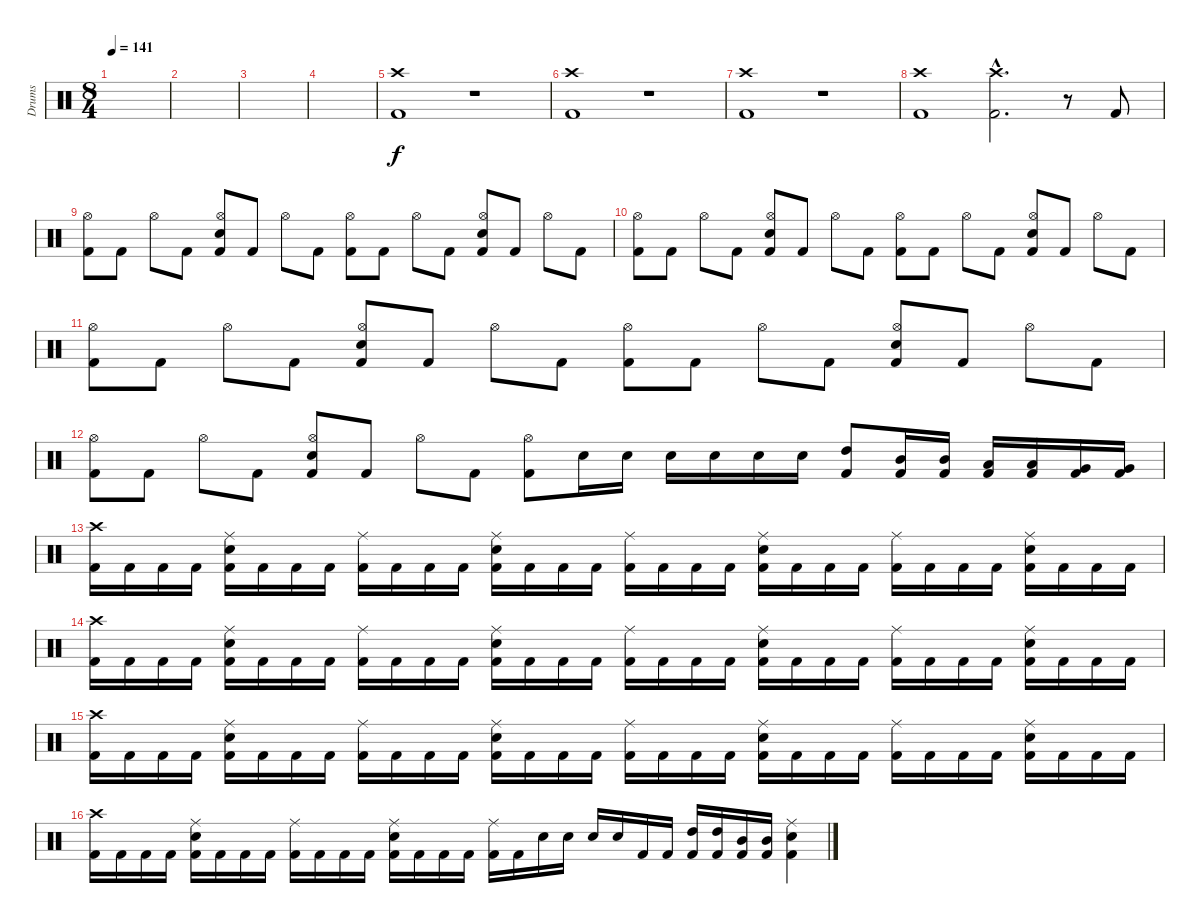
\track ("Drums" "Drums") {instrument percussion}
\staff {score}
\articulation defaults
\ts (8 4)
\tempo 141
\clef neutral
\ks c
|
|
|
|
("Crash high (hit)" "Kick (hit) 2").1 r.1 |
("Crash high (hit)" "Kick (hit) 2").1 r.1 |
("Crash high (hit)" "Kick (hit) 2").1 r.1 |
("Crash high (hit)" "Kick (hit) 2").1 ("Crash high (hit)"{hac} "Kick (hit) 2"{hac}).2{d} r.8 "Kick (hit) 2".8 |
("Hi-Hat (open)" "Kick (hit) 2").8{dy f} "Kick (hit) 2".8 "Hi-Hat (open)".8 "Kick (hit) 2".8 ("Hi-Hat (open)" "Snare (hit) 2" "Kick (hit) 2").8 "Kick (hit) 2".8 "Hi-Hat (open)".8 "Kick (hit) 2".8 ("Hi-Hat (open)" "Kick (hit) 2").8 "Kick (hit) 2".8 "Hi-Hat (open)".8 "Kick (hit) 2".8 ("Hi-Hat (open)" "Snare (hit) 2" "Kick (hit) 2").8 "Kick (hit) 2".8 "Hi-Hat (open)".8 "Kick (hit) 2".8 |
("Hi-Hat (open)" "Kick (hit) 2").8 "Kick (hit) 2".8 "Hi-Hat (open)".8 "Kick (hit) 2".8 ("Hi-Hat (open)" "Snare (hit) 2" "Kick (hit) 2").8 "Kick (hit) 2".8 "Hi-Hat (open)".8 "Kick (hit) 2".8 ("Hi-Hat (open)" "Kick (hit) 2").8 "Kick (hit) 2".8 "Hi-Hat (open)".8 "Kick (hit) 2".8 ("Hi-Hat (open)" "Snare (hit) 2" "Kick (hit) 2").8 "Kick (hit) 2".8 "Hi-Hat (open)".8 "Kick (hit) 2".8 |
("Hi-Hat (open)" "Kick (hit) 2").8 "Kick (hit) 2".8 "Hi-Hat (open)".8 "Kick (hit) 2".8 ("Hi-Hat (open)" "Snare (hit) 2" "Kick (hit) 2").8 "Kick (hit) 2".8 "Hi-Hat (open)".8 "Kick (hit) 2".8 ("Hi-Hat (open)" "Kick (hit) 2").8 "Kick (hit) 2".8 "Hi-Hat (open)".8 "Kick (hit) 2".8 ("Hi-Hat (open)" "Snare (hit) 2" "Kick (hit) 2").8 "Kick (hit) 2".8 "Hi-Hat (open)".8 "Kick (hit) 2".8 |
("Hi-Hat (open)" "Kick (hit) 2").8 "Kick (hit) 2".8 "Hi-Hat (open)".8 "Kick (hit) 2".8 ("Hi-Hat (open)" "Snare (hit) 2" "Kick (hit) 2").8 "Kick (hit) 2".8 "Hi-Hat (open)".8 "Kick (hit) 2".8 ("Hi-Hat (open)" "Kick (hit) 2").8 "Snare (hit) 2".16 "Snare (hit) 2".16 "Snare (hit) 2".16 "Snare (hit) 2".16 "Snare (hit) 2".16 "Snare (hit) 2".16 ("High Tom (hit)" "Kick (hit) 2").8 ("Mid Tom (hit)" "Kick (hit) 2").16 ("Mid Tom (hit)" "Kick (hit) 2").16 ("Low Tom (hit)" "Kick (hit) 2").16 ("Low Tom (hit)" "Kick (hit) 2").16 ("Very Low Tom (hit)" "Kick (hit) 2").16 ("Very Low Tom (hit)" "Kick (hit) 2").16 |
("Crash high (hit)" "Kick (hit) 2").16 "Kick (hit) 2".16 "Kick (hit) 2".16 "Kick (hit) 2".16 ("Ride (middle)" "Snare (hit) 2" "Kick (hit) 2").16 "Kick (hit) 2".16 "Kick (hit) 2".16 "Kick (hit) 2".16 ("Ride (middle)" "Kick (hit) 2").16 "Kick (hit) 2".16 "Kick (hit) 2".16 "Kick (hit) 2".16 ("Ride (middle)" "Snare (hit) 2" "Kick (hit) 2").16 "Kick (hit) 2".16 "Kick (hit) 2".16 "Kick (hit) 2".16 ("Ride (middle)" "Kick (hit) 2").16 "Kick (hit) 2".16 "Kick (hit) 2".16 "Kick (hit) 2".16 ("Ride (middle)" "Snare (hit) 2" "Kick (hit) 2").16 "Kick (hit) 2".16 "Kick (hit) 2".16 "Kick (hit) 2".16 ("Ride (middle)" "Kick (hit) 2").16 "Kick (hit) 2".16 "Kick (hit) 2".16 "Kick (hit) 2".16 ("Ride (middle)" "Snare (hit) 2" "Kick (hit) 2").16 "Kick (hit) 2".16 "Kick (hit) 2".16 "Kick (hit) 2".16 |
("Crash high (hit)" "Kick (hit) 2").16 "Kick (hit) 2".16 "Kick (hit) 2".16 "Kick (hit) 2".16 ("Ride (middle)" "Snare (hit) 2" "Kick (hit) 2").16 "Kick (hit) 2".16 "Kick (hit) 2".16 "Kick (hit) 2".16 ("Ride (middle)" "Kick (hit) 2").16 "Kick (hit) 2".16 "Kick (hit) 2".16 "Kick (hit) 2".16 ("Ride (middle)" "Snare (hit) 2" "Kick (hit) 2").16 "Kick (hit) 2".16 "Kick (hit) 2".16 "Kick (hit) 2".16 ("Ride (middle)" "Kick (hit) 2").16 "Kick (hit) 2".16 "Kick (hit) 2".16 "Kick (hit) 2".16 ("Ride (middle)" "Snare (hit) 2" "Kick (hit) 2").16 "Kick (hit) 2".16 "Kick (hit) 2".16 "Kick (hit) 2".16 ("Ride (middle)" "Kick (hit) 2").16 "Kick (hit) 2".16 "Kick (hit) 2".16 "Kick (hit) 2".16 ("Ride (middle)" "Snare (hit) 2" "Kick (hit) 2").16 "Kick (hit) 2".16 "Kick (hit) 2".16 "Kick (hit) 2".16 |
("Crash high (hit)" "Kick (hit) 2").16 "Kick (hit) 2".16 "Kick (hit) 2".16 "Kick (hit) 2".16 ("Ride (middle)" "Snare (hit) 2" "Kick (hit) 2").16 "Kick (hit) 2".16 "Kick (hit) 2".16 "Kick (hit) 2".16 ("Ride (middle)" "Kick (hit) 2").16 "Kick (hit) 2".16 "Kick (hit) 2".16 "Kick (hit) 2".16 ("Ride (middle)" "Snare (hit) 2" "Kick (hit) 2").16 "Kick (hit) 2".16 "Kick (hit) 2".16 "Kick (hit) 2".16 ("Ride (middle)" "Kick (hit) 2").16 "Kick (hit) 2".16 "Kick (hit) 2".16 "Kick (hit) 2".16 ("Ride (middle)" "Snare (hit) 2" "Kick (hit) 2").16 "Kick (hit) 2".16 "Kick (hit) 2".16 "Kick (hit) 2".16 ("Ride (middle)" "Kick (hit) 2").16 "Kick (hit) 2".16 "Kick (hit) 2".16 "Kick (hit) 2".16 ("Ride (middle)" "Snare (hit) 2" "Kick (hit) 2").16 "Kick (hit) 2".16 "Kick (hit) 2".16 "Kick (hit) 2".16 |
("Crash high (hit)" "Kick (hit) 2").16 "Kick (hit) 2".16 "Kick (hit) 2".16 "Kick (hit) 2".16 ("Ride (middle)" "Snare (hit) 2" "Kick (hit) 2").16 "Kick (hit) 2".16 "Kick (hit) 2".16 "Kick (hit) 2".16 ("Ride (middle)" "Kick (hit) 2").16 "Kick (hit) 2".16 "Kick (hit) 2".16 "Kick (hit) 2".16 ("Ride (middle)" "Snare (hit) 2" "Kick (hit) 2").16 "Kick (hit) 2".16 "Kick (hit) 2".16 "Kick (hit) 2".16 ("Ride (middle)" "Kick (hit) 2").16 "Kick (hit) 2".16 "Snare (hit) 2".16 "Snare (hit) 2".16 "Snare (hit) 2".16 "Snare (hit) 2".16 "Kick (hit) 2".16 "Kick (hit) 2".16 ("High Tom (hit)" "Kick (hit) 2").16 ("High Tom (hit)" "Kick (hit) 2").16 ("Mid Tom (hit)" "Kick (hit) 2").16 ("Mid Tom (hit)" "Kick (hit) 2").16 ("Ride (middle)" "Snare (hit) 2" "Kick (hit) 2").4
